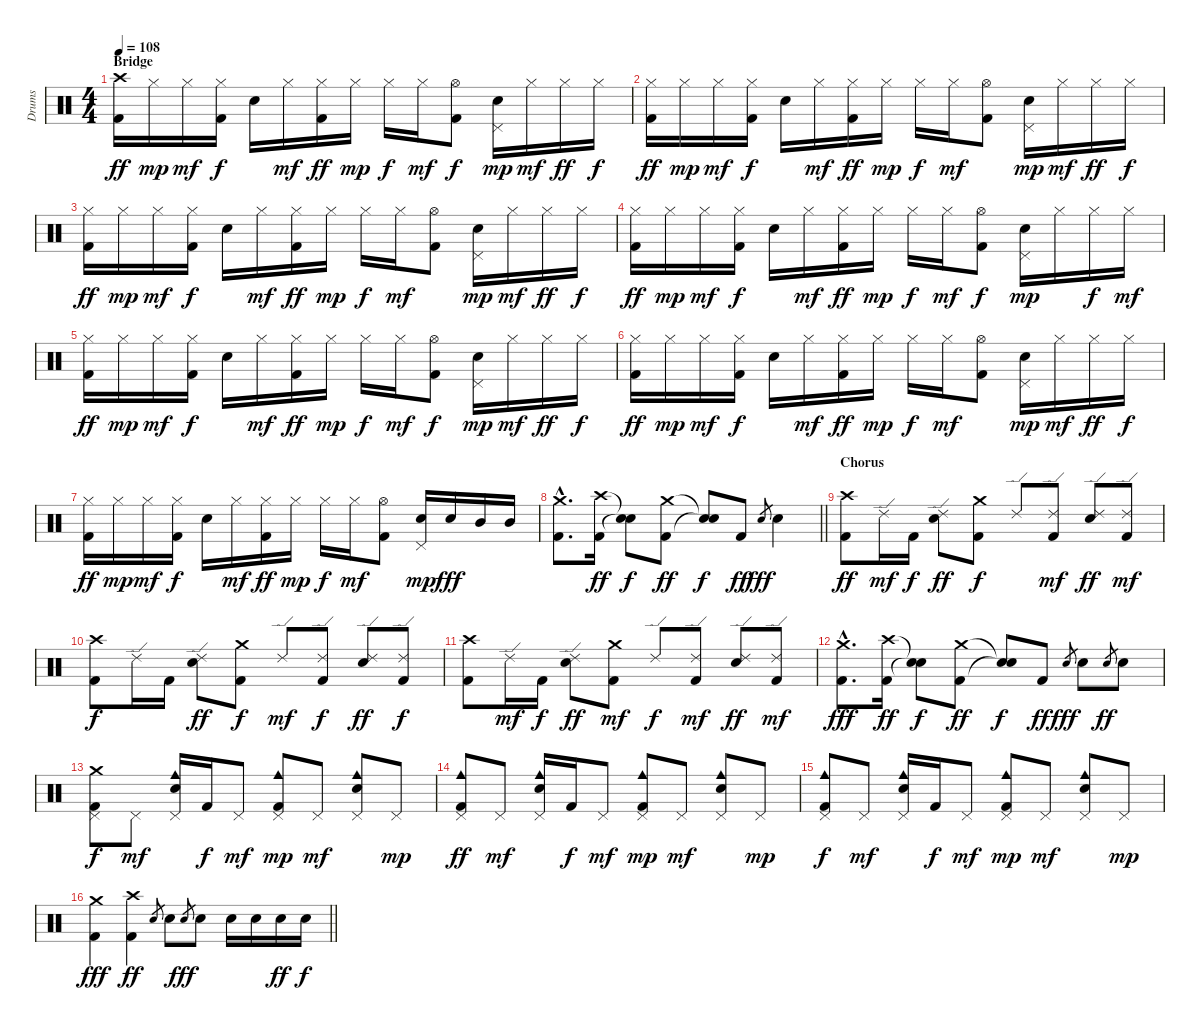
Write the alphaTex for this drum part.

\track ("Drums" "Drums") {instrument percussion}
\staff {score}
\articulation defaults
\ts (4 4)
\section ("" "Bridge")
\tempo 108
\clef neutral
\ks c
("Crash high (hit)" "Kick (hit) 2").16{dy ff} "Hi-Hat (closed)".16{dy mp} "Hi-Hat (closed)".16{dy mf} ("Hi-Hat (closed)" "Kick (hit) 2").16{dy f} "Electric Snare (hit)".16 "Hi-Hat (closed)".16{dy mf} ("Hi-Hat (closed)" "Kick (hit) 2").16{dy ff} "Hi-Hat (closed)".16{dy mp} "Hi-Hat (closed)".16{dy f} "Hi-Hat (closed)".16{dy mf} ("Hi-Hat (open)" "Kick (hit) 2").8{dy f} ("Electric Snare (hit)" "Pedal Hi-Hat (hit)").16{dy mp} "Hi-Hat (closed)".16{dy mf} "Hi-Hat (closed)".16{dy ff} "Hi-Hat (closed)".16{dy f} |
("Hi-Hat (closed)" "Kick (hit) 2").16{dy ff} "Hi-Hat (closed)".16{dy mp} "Hi-Hat (closed)".16{dy mf} ("Hi-Hat (closed)" "Kick (hit) 2").16{dy f} "Electric Snare (hit)".16 "Hi-Hat (closed)".16{dy mf} ("Hi-Hat (closed)" "Kick (hit) 2").16{dy ff} "Hi-Hat (closed)".16{dy mp} "Hi-Hat (closed)".16{dy f} "Hi-Hat (closed)".16{dy mf} ("Hi-Hat (open)" "Kick (hit) 2").8 ("Electric Snare (hit)" "Pedal Hi-Hat (hit)").16{dy mp} "Hi-Hat (closed)".16{dy mf} "Hi-Hat (closed)".16{dy ff} "Hi-Hat (closed)".16{dy f} |
("Hi-Hat (closed)" "Kick (hit) 2").16{dy ff} "Hi-Hat (closed)".16{dy mp} "Hi-Hat (closed)".16{dy mf} ("Hi-Hat (closed)" "Kick (hit) 2").16{dy f} "Electric Snare (hit)".16 "Hi-Hat (closed)".16{dy mf} ("Hi-Hat (closed)" "Kick (hit) 2").16{dy ff} "Hi-Hat (closed)".16{dy mp} "Hi-Hat (closed)".16{dy f} "Hi-Hat (closed)".16{dy mf} ("Hi-Hat (open)" "Kick (hit) 2").8 ("Electric Snare (hit)" "Pedal Hi-Hat (hit)").16{dy mp} "Hi-Hat (closed)".16{dy mf} "Hi-Hat (closed)".16{dy ff} "Hi-Hat (closed)".16{dy f} |
("Hi-Hat (closed)" "Kick (hit) 2").16{dy ff} "Hi-Hat (closed)".16{dy mp} "Hi-Hat (closed)".16{dy mf} ("Hi-Hat (closed)" "Kick (hit) 2").16{dy f} "Electric Snare (hit)".16 "Hi-Hat (closed)".16{dy mf} ("Hi-Hat (closed)" "Kick (hit) 2").16{dy ff} "Hi-Hat (closed)".16{dy mp} "Hi-Hat (closed)".16{dy f} "Hi-Hat (closed)".16{dy mf} ("Hi-Hat (open)" "Kick (hit) 2").8{dy f} ("Electric Snare (hit)" "Pedal Hi-Hat (hit)").16{dy mp} "Hi-Hat (closed)".16 "Hi-Hat (closed)".16{dy f} "Hi-Hat (closed)".16{dy mf} |
("Hi-Hat (closed)" "Kick (hit) 2").16{dy ff} "Hi-Hat (closed)".16{dy mp} "Hi-Hat (closed)".16{dy mf} ("Hi-Hat (closed)" "Kick (hit) 2").16{dy f} "Electric Snare (hit)".16 "Hi-Hat (closed)".16{dy mf} ("Hi-Hat (closed)" "Kick (hit) 2").16{dy ff} "Hi-Hat (closed)".16{dy mp} "Hi-Hat (closed)".16{dy f} "Hi-Hat (closed)".16{dy mf} ("Hi-Hat (open)" "Kick (hit) 2").8{dy f} ("Electric Snare (hit)" "Pedal Hi-Hat (hit)").16{dy mp} "Hi-Hat (closed)".16{dy mf} "Hi-Hat (closed)".16{dy ff} "Hi-Hat (closed)".16{dy f} |
("Hi-Hat (closed)" "Kick (hit) 2").16{dy ff} "Hi-Hat (closed)".16{dy mp} "Hi-Hat (closed)".16{dy mf} ("Hi-Hat (closed)" "Kick (hit) 2").16{dy f} "Electric Snare (hit)".16 "Hi-Hat (closed)".16{dy mf} ("Hi-Hat (closed)" "Kick (hit) 2").16{dy ff} "Hi-Hat (closed)".16{dy mp} "Hi-Hat (closed)".16{dy f} "Hi-Hat (closed)".16{dy mf} ("Hi-Hat (open)" "Kick (hit) 2").8 ("Electric Snare (hit)" "Pedal Hi-Hat (hit)").16{dy mp} "Hi-Hat (closed)".16{dy mf} "Hi-Hat (closed)".16{dy ff} "Hi-Hat (closed)".16{dy f} |
("Hi-Hat (closed)" "Kick (hit) 2").16{dy ff} "Hi-Hat (closed)".16{dy mp} "Hi-Hat (closed)".16{dy mf} ("Hi-Hat (closed)" "Kick (hit) 2").16{dy f} "Electric Snare (hit)".16 "Hi-Hat (closed)".16{dy mf} ("Hi-Hat (closed)" "Kick (hit) 2").16{dy ff} "Hi-Hat (closed)".16{dy mp} "Hi-Hat (closed)".16{dy f} "Hi-Hat (closed)".16{dy mf} ("Hi-Hat (open)" "Kick (hit) 2").8 ("Electric Snare (hit)" "Pedal Hi-Hat (hit)").16{dy mp} "Electric Snare (hit)".16{dy fff} "Mid Tom (hit)".16 "Mid Tom (hit)".16 |
\barLineRight lightlight
("Crash medium (hit)"{hac} "Kick (hit) 2"{hac}).8{d} ("Crash high (hit)" "Kick (hit) 2").16{dy ff} ("Snare (hit)"{t} "Snare (hit)"{t}).8{dy f} ("Crash medium (hit)" "Kick (hit) 2").8{dy ff} ("Snare (hit)"{t} "Snare (hit)"{t}).8{dy f} "Kick (hit) 2".8{dy ff} "Electric Snare (hit)".8{gr dy fff} "Electric Snare (hit)".4 |
\section ("" "Chorus")
("Crash high (hit)" "Kick (hit) 2").8{dy ff} "Ride (edge) 2".16{dy mf} "Kick (hit) 2".16{dy f} ("Ride (edge) 2" "Electric Snare (hit)").8{dy ff} ("Crash medium (hit)" "Kick (hit) 2").8{dy f} "Ride (edge) 2".8 ("Ride (edge) 2" "Kick (hit) 2").8{dy mf} ("Ride (edge) 2" "Electric Snare (hit)").8{dy ff} ("Ride (edge) 2" "Kick (hit) 2").8{dy mf} |
("Crash high (hit)" "Kick (hit) 2").8{dy f} "Ride (edge) 2".16 "Kick (hit) 2".16 ("Ride (edge) 2" "Electric Snare (hit)").8{dy ff} ("Crash medium (hit)" "Kick (hit) 2").8{dy f} "Ride (edge) 2".8{dy mf} ("Ride (edge) 2" "Kick (hit) 2").8{dy f} ("Ride (edge) 2" "Electric Snare (hit)").8{dy ff} ("Ride (edge) 2" "Kick (hit) 2").8{dy f} |
("Crash high (hit)" "Kick (hit) 2").8 "Ride (edge) 2".16{dy mf} "Kick (hit) 2".16{dy f} ("Ride (edge) 2" "Electric Snare (hit)").8{dy ff} ("Crash medium (hit)" "Kick (hit) 2").8{dy mf} "Ride (edge) 2".8{dy f} ("Ride (edge) 2" "Kick (hit) 2").8{dy mf} ("Ride (edge) 2" "Electric Snare (hit)").8{dy ff} ("Ride (edge) 2" "Kick (hit) 2").8{dy mf} |
("Crash medium (hit)"{hac} "Kick (hit) 2"{hac}).8{d dy fff} ("Crash high (hit)" "Kick (hit) 2").16{dy ff} ("Snare (hit)"{t} "Snare (hit)"{t}).8{dy f} ("Crash medium (hit)" "Kick (hit) 2").8{dy ff} ("Snare (hit)"{t} "Snare (hit)"{t}).8{dy f} "Kick (hit) 2".8{dy ff} "Electric Snare (hit)".8{gr dy fff} "Electric Snare (hit)".8 "Electric Snare (hit)"{sl}.8{gr dy ff} "Electric Snare (hit)".8 |
("Crash medium (hit)" "Pedal Hi-Hat (hit)" "Kick (hit) 2").8{dy f} "Pedal Hi-Hat (hit)".8{dy mf} ("Cowbell medium (hit)" "Electric Snare (hit)" "Pedal Hi-Hat (hit)").16 "Kick (hit) 2".16{dy f} "Pedal Hi-Hat (hit)".8{dy mf} ("Cowbell medium (hit)" "Pedal Hi-Hat (hit)" "Kick (hit) 2").8{dy mp} "Pedal Hi-Hat (hit)".8{dy mf} ("Cowbell medium (hit)" "Electric Snare (hit)" "Pedal Hi-Hat (hit)").8 "Pedal Hi-Hat (hit)".8{dy mp} |
("Cowbell medium (hit)" "Pedal Hi-Hat (hit)" "Kick (hit) 2").8{dy ff} "Pedal Hi-Hat (hit)".8{dy mf} ("Cowbell medium (hit)" "Electric Snare (hit)" "Pedal Hi-Hat (hit)").16 "Kick (hit) 2".16{dy f} "Pedal Hi-Hat (hit)".8{dy mf} ("Cowbell medium (hit)" "Pedal Hi-Hat (hit)" "Kick (hit) 2").8{dy mp} "Pedal Hi-Hat (hit)".8{dy mf} ("Cowbell medium (hit)" "Electric Snare (hit)" "Pedal Hi-Hat (hit)").8 "Pedal Hi-Hat (hit)".8{dy mp} |
("Cowbell medium (hit)" "Pedal Hi-Hat (hit)" "Kick (hit) 2").8{dy f} "Pedal Hi-Hat (hit)".8{dy mf} ("Cowbell medium (hit)" "Electric Snare (hit)" "Pedal Hi-Hat (hit)").16 "Kick (hit) 2".16{dy f} "Pedal Hi-Hat (hit)".8{dy mf} ("Cowbell medium (hit)" "Pedal Hi-Hat (hit)" "Kick (hit) 2").8{dy mp} "Pedal Hi-Hat (hit)".8{dy mf} ("Cowbell medium (hit)" "Electric Snare (hit)" "Pedal Hi-Hat (hit)").8 "Pedal Hi-Hat (hit)".8{dy mp} |
\barLineRight lightlight
("Crash medium (hit)" "Kick (hit) 2").4{dy fff} ("Crash high (hit)" "Kick (hit) 2").4{dy ff} "Electric Snare (hit)"{sl}.8{gr} "Electric Snare (hit)".8 "Electric Snare (hit)"{h}.8{gr dy fff} "Electric Snare (hit)".8 "Electric Snare (hit)".16 "Electric Snare (hit)".16 "Electric Snare (hit)".16{dy ff} "Electric Snare (hit)".16{dy f}
